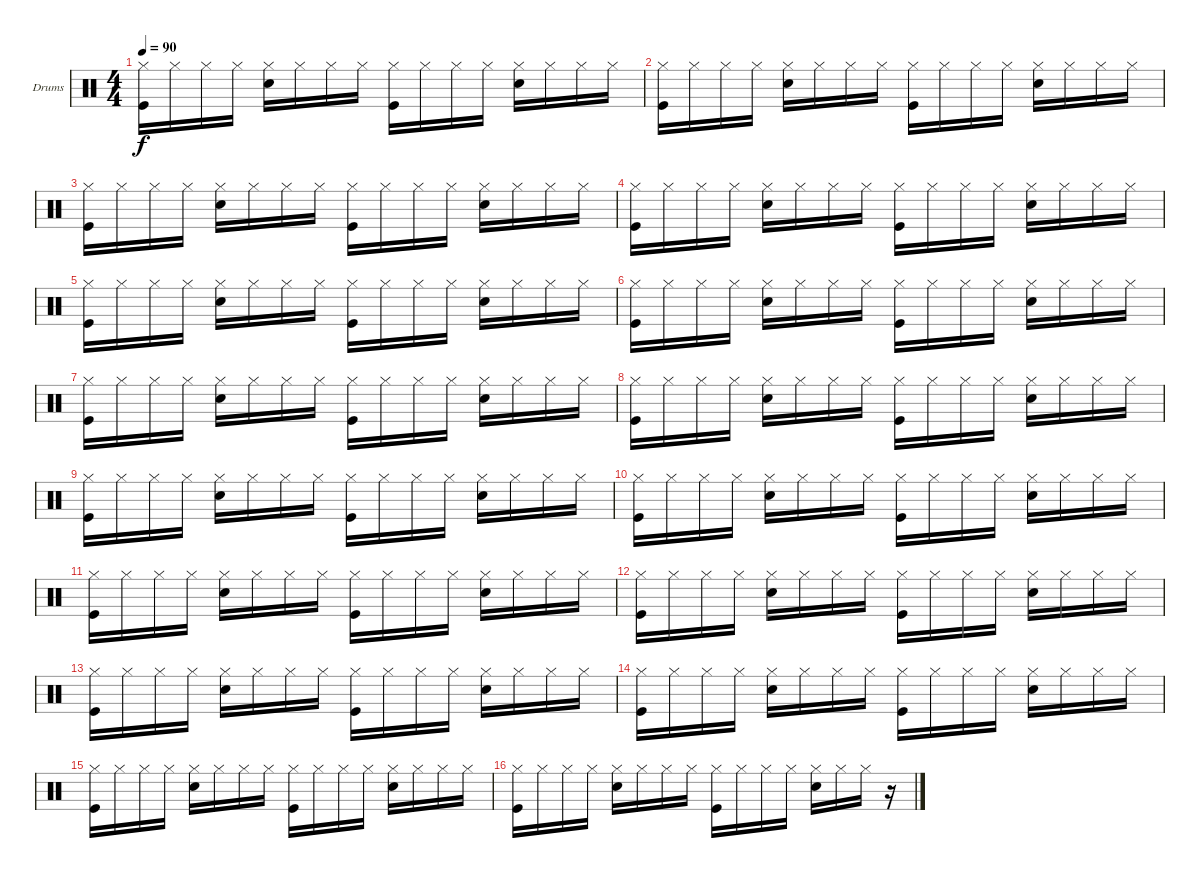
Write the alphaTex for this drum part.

\defaultSystemsLayout 4
\bracketExtendMode groupsimilarinstruments
\firstSystemTrackNameOrientation horizontal
\otherSystemsTrackNameOrientation horizontal
\track ("Drumkit" "Drums") {instrument percussion}
\staff {score}
\articulation defaults
\ts (4 4)
\tempo 90
\clef neutral
\ks c
("Kick (hit)" "Hi-Hat (closed)").16{dy f} "Hi-Hat (closed)".16 "Hi-Hat (closed)".16 "Hi-Hat (closed)".16 ("Hi-Hat (closed)" "Snare (hit) 2").16 "Hi-Hat (closed)".16 "Hi-Hat (closed)".16 "Hi-Hat (closed)".16 ("Hi-Hat (closed)" "Kick (hit)").16 "Hi-Hat (closed)".16 "Hi-Hat (closed)".16 "Hi-Hat (closed)".16 ("Snare (hit) 2" "Hi-Hat (closed)").16 "Hi-Hat (closed)".16 "Hi-Hat (closed)".16 "Hi-Hat (closed)".16 |
("Hi-Hat (closed)" "Kick (hit)").16 "Hi-Hat (closed)".16 "Hi-Hat (closed)".16 "Hi-Hat (closed)".16 ("Hi-Hat (closed)" "Snare (hit) 2").16 "Hi-Hat (closed)".16 "Hi-Hat (closed)".16 "Hi-Hat (closed)".16 ("Kick (hit)" "Hi-Hat (closed)").16 "Hi-Hat (closed)".16 "Hi-Hat (closed)".16 "Hi-Hat (closed)".16 ("Hi-Hat (closed)" "Snare (hit) 2").16 "Hi-Hat (closed)".16 "Hi-Hat (closed)".16 "Hi-Hat (closed)".16 |
("Hi-Hat (closed)" "Kick (hit)").16 "Hi-Hat (closed)".16 "Hi-Hat (closed)".16 "Hi-Hat (closed)".16 ("Snare (hit) 2" "Hi-Hat (closed)").16 "Hi-Hat (closed)".16 "Hi-Hat (closed)".16 "Hi-Hat (closed)".16 ("Hi-Hat (closed)" "Kick (hit)").16 "Hi-Hat (closed)".16 "Hi-Hat (closed)".16 "Hi-Hat (closed)".16 ("Hi-Hat (closed)" "Snare (hit) 2").16 "Hi-Hat (closed)".16 "Hi-Hat (closed)".16 "Hi-Hat (closed)".16 |
("Kick (hit)" "Hi-Hat (closed)").16 "Hi-Hat (closed)".16 "Hi-Hat (closed)".16 "Hi-Hat (closed)".16 ("Hi-Hat (closed)" "Snare (hit) 2").16 "Hi-Hat (closed)".16 "Hi-Hat (closed)".16 "Hi-Hat (closed)".16 ("Hi-Hat (closed)" "Kick (hit)").16 "Hi-Hat (closed)".16 "Hi-Hat (closed)".16 "Hi-Hat (closed)".16 ("Snare (hit) 2" "Hi-Hat (closed)").16 "Hi-Hat (closed)".16 "Hi-Hat (closed)".16 "Hi-Hat (closed)".16 |
("Hi-Hat (closed)" "Kick (hit)").16 "Hi-Hat (closed)".16 "Hi-Hat (closed)".16 "Hi-Hat (closed)".16 ("Hi-Hat (closed)" "Snare (hit) 2").16 "Hi-Hat (closed)".16 "Hi-Hat (closed)".16 "Hi-Hat (closed)".16 ("Kick (hit)" "Hi-Hat (closed)").16 "Hi-Hat (closed)".16 "Hi-Hat (closed)".16 "Hi-Hat (closed)".16 ("Hi-Hat (closed)" "Snare (hit) 2").16 "Hi-Hat (closed)".16 "Hi-Hat (closed)".16 "Hi-Hat (closed)".16 |
("Hi-Hat (closed)" "Kick (hit)").16 "Hi-Hat (closed)".16 "Hi-Hat (closed)".16 "Hi-Hat (closed)".16 ("Hi-Hat (closed)" "Snare (hit) 2").16 "Hi-Hat (closed)".16 "Hi-Hat (closed)".16 "Hi-Hat (closed)".16 ("Kick (hit)" "Hi-Hat (closed)").16 "Hi-Hat (closed)".16 "Hi-Hat (closed)".16 "Hi-Hat (closed)".16 ("Snare (hit) 2" "Hi-Hat (closed)").16 "Hi-Hat (closed)".16 "Hi-Hat (closed)".16 "Hi-Hat (closed)".16 |
("Kick (hit)" "Hi-Hat (closed)").16 "Hi-Hat (closed)".16 "Hi-Hat (closed)".16 "Hi-Hat (closed)".16 ("Hi-Hat (closed)" "Snare (hit) 2").16 "Hi-Hat (closed)".16 "Hi-Hat (closed)".16 "Hi-Hat (closed)".16 ("Hi-Hat (closed)" "Kick (hit)").16 "Hi-Hat (closed)".16 "Hi-Hat (closed)".16 "Hi-Hat (closed)".16 ("Snare (hit) 2" "Hi-Hat (closed)").16 "Hi-Hat (closed)".16 "Hi-Hat (closed)".16 "Hi-Hat (closed)".16 |
("Kick (hit)" "Hi-Hat (closed)").16 "Hi-Hat (closed)".16 "Hi-Hat (closed)".16 "Hi-Hat (closed)".16 ("Snare (hit) 2" "Hi-Hat (closed)").16 "Hi-Hat (closed)".16 "Hi-Hat (closed)".16 "Hi-Hat (closed)".16 ("Hi-Hat (closed)" "Kick (hit)").16 "Hi-Hat (closed)".16 "Hi-Hat (closed)".16 "Hi-Hat (closed)".16 ("Hi-Hat (closed)" "Snare (hit) 2").16 "Hi-Hat (closed)".16 "Hi-Hat (closed)".16 "Hi-Hat (closed)".16 |
("Kick (hit)" "Hi-Hat (closed)").16 "Hi-Hat (closed)".16 "Hi-Hat (closed)".16 "Hi-Hat (closed)".16 ("Snare (hit) 2" "Hi-Hat (closed)").16 "Hi-Hat (closed)".16 "Hi-Hat (closed)".16 "Hi-Hat (closed)".16 ("Kick (hit)" "Hi-Hat (closed)").16 "Hi-Hat (closed)".16 "Hi-Hat (closed)".16 "Hi-Hat (closed)".16 ("Hi-Hat (closed)" "Snare (hit) 2").16 "Hi-Hat (closed)".16 "Hi-Hat (closed)".16 "Hi-Hat (closed)".16 |
("Kick (hit)" "Hi-Hat (closed)").16 "Hi-Hat (closed)".16 "Hi-Hat (closed)".16 "Hi-Hat (closed)".16 ("Hi-Hat (closed)" "Snare (hit) 2").16 "Hi-Hat (closed)".16 "Hi-Hat (closed)".16 "Hi-Hat (closed)".16 ("Kick (hit)" "Hi-Hat (closed)").16 "Hi-Hat (closed)".16 "Hi-Hat (closed)".16 "Hi-Hat (closed)".16 ("Snare (hit) 2" "Hi-Hat (closed)").16 "Hi-Hat (closed)".16 "Hi-Hat (closed)".16 "Hi-Hat (closed)".16 |
("Kick (hit)" "Hi-Hat (closed)").16 "Hi-Hat (closed)".16 "Hi-Hat (closed)".16 "Hi-Hat (closed)".16 ("Hi-Hat (closed)" "Snare (hit) 2").16 "Hi-Hat (closed)".16 "Hi-Hat (closed)".16 "Hi-Hat (closed)".16 ("Kick (hit)" "Hi-Hat (closed)").16 "Hi-Hat (closed)".16 "Hi-Hat (closed)".16 "Hi-Hat (closed)".16 ("Hi-Hat (closed)" "Snare (hit) 2").16 "Hi-Hat (closed)".16 "Hi-Hat (closed)".16 "Hi-Hat (closed)".16 |
("Kick (hit)" "Hi-Hat (closed)").16 "Hi-Hat (closed)".16 "Hi-Hat (closed)".16 "Hi-Hat (closed)".16 ("Hi-Hat (closed)" "Snare (hit) 2").16 "Hi-Hat (closed)".16 "Hi-Hat (closed)".16 "Hi-Hat (closed)".16 ("Kick (hit)" "Hi-Hat (closed)").16 "Hi-Hat (closed)".16 "Hi-Hat (closed)".16 "Hi-Hat (closed)".16 ("Hi-Hat (closed)" "Snare (hit) 2").16 "Hi-Hat (closed)".16 "Hi-Hat (closed)".16 "Hi-Hat (closed)".16 |
("Kick (hit)" "Hi-Hat (closed)").16 "Hi-Hat (closed)".16 "Hi-Hat (closed)".16 "Hi-Hat (closed)".16 ("Snare (hit) 2" "Hi-Hat (closed)").16 "Hi-Hat (closed)".16 "Hi-Hat (closed)".16 "Hi-Hat (closed)".16 ("Kick (hit)" "Hi-Hat (closed)").16 "Hi-Hat (closed)".16 "Hi-Hat (closed)".16 "Hi-Hat (closed)".16 ("Hi-Hat (closed)" "Snare (hit) 2").16 "Hi-Hat (closed)".16 "Hi-Hat (closed)".16 "Hi-Hat (closed)".16 |
("Kick (hit)" "Hi-Hat (closed)").16 "Hi-Hat (closed)".16 "Hi-Hat (closed)".16 "Hi-Hat (closed)".16 ("Hi-Hat (closed)" "Snare (hit) 2").16 "Hi-Hat (closed)".16 "Hi-Hat (closed)".16 "Hi-Hat (closed)".16 ("Kick (hit)" "Hi-Hat (closed)").16 "Hi-Hat (closed)".16 "Hi-Hat (closed)".16 "Hi-Hat (closed)".16 ("Snare (hit) 2" "Hi-Hat (closed)").16 "Hi-Hat (closed)".16 "Hi-Hat (closed)".16 "Hi-Hat (closed)".16 |
("Kick (hit)" "Hi-Hat (closed)").16 "Hi-Hat (closed)".16 "Hi-Hat (closed)".16 "Hi-Hat (closed)".16 ("Hi-Hat (closed)" "Snare (hit) 2").16 "Hi-Hat (closed)".16 "Hi-Hat (closed)".16 "Hi-Hat (closed)".16 ("Kick (hit)" "Hi-Hat (closed)").16 "Hi-Hat (closed)".16 "Hi-Hat (closed)".16 "Hi-Hat (closed)".16 ("Hi-Hat (closed)" "Snare (hit) 2").16 "Hi-Hat (closed)".16 "Hi-Hat (closed)".16 "Hi-Hat (closed)".16 |
("Kick (hit)" "Hi-Hat (closed)").16 "Hi-Hat (closed)".16 "Hi-Hat (closed)".16 "Hi-Hat (closed)".16 ("Hi-Hat (closed)" "Snare (hit) 2").16 "Hi-Hat (closed)".16 "Hi-Hat (closed)".16 "Hi-Hat (closed)".16 ("Kick (hit)" "Hi-Hat (closed)").16 "Hi-Hat (closed)".16 "Hi-Hat (closed)".16 "Hi-Hat (closed)".16 ("Hi-Hat (closed)" "Snare (hit) 2").16 "Hi-Hat (closed)".16 "Hi-Hat (closed)".16 r.16
